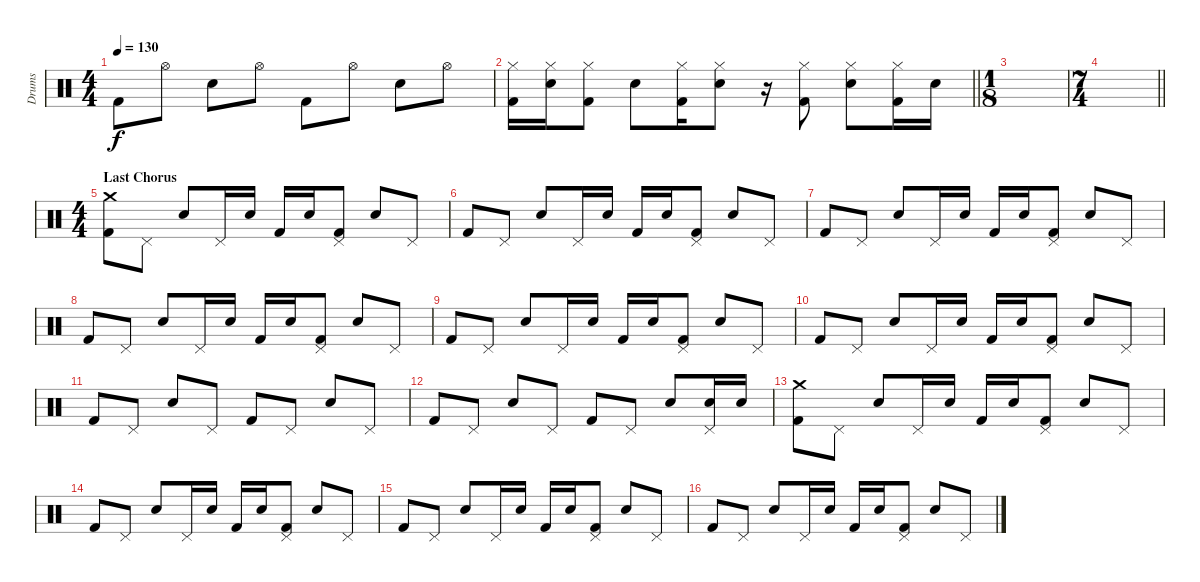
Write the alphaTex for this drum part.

\track ("Drums" "Drums") {instrument percussion}
\staff {score}
\articulation defaults
\ts (4 4)
\tempo 130
\clef neutral
\ks c "Kick (hit) 2".8{dy f} "Hi-Hat (open)".8 "Electric Snare (hit)".8 "Hi-Hat (open)".8 "Kick (hit) 2".8 "Hi-Hat (open)".8 "Electric Snare (hit)".8 "Hi-Hat (open)".8
|
\barLineRight lightlight
("Kick (hit) 2" "Hi-Hat (closed)").16 ("Electric Snare (hit)" "Hi-Hat (closed)").16 ("Kick (hit) 2" "Hi-Hat (closed)").8 "Electric Snare (hit)".8 ("Kick (hit) 2" "Hi-Hat (closed)").16 ("Electric Snare (hit)" "Hi-Hat (closed)").8 r.16 ("Kick (hit) 2" "Hi-Hat (closed)").8 ("Electric Snare (hit)" "Hi-Hat (closed)").8 ("Kick (hit) 2" "Hi-Hat (closed)").16 "Electric Snare (hit)".16 |
\ts (1 8)
|
\ts (7 4)
\barLineRight lightlight
|
\ts (4 4)
\section ("" "Last Chorus")
("Kick (hit) 2" "Crash medium (hit)").8 "Pedal Hi-Hat (hit)".8 "Electric Snare (hit)".8 "Pedal Hi-Hat (hit)".16 "Electric Snare (hit)".16 "Kick (hit) 2".16 "Electric Snare (hit)".16 ("Kick (hit) 2" "Pedal Hi-Hat (hit)").8 "Electric Snare (hit)".8 "Pedal Hi-Hat (hit)".8 |
"Kick (hit) 2".8 "Pedal Hi-Hat (hit)".8 "Electric Snare (hit)".8 "Pedal Hi-Hat (hit)".16 "Electric Snare (hit)".16 "Kick (hit) 2".16 "Electric Snare (hit)".16 ("Kick (hit) 2" "Pedal Hi-Hat (hit)").8 "Electric Snare (hit)".8 "Pedal Hi-Hat (hit)".8 |
"Kick (hit) 2".8 "Pedal Hi-Hat (hit)".8 "Electric Snare (hit)".8 "Pedal Hi-Hat (hit)".16 "Electric Snare (hit)".16 "Kick (hit) 2".16 "Electric Snare (hit)".16 ("Kick (hit) 2" "Pedal Hi-Hat (hit)").8 "Electric Snare (hit)".8 "Pedal Hi-Hat (hit)".8 |
"Kick (hit) 2".8 "Pedal Hi-Hat (hit)".8 "Electric Snare (hit)".8 "Pedal Hi-Hat (hit)".16 "Electric Snare (hit)".16 "Kick (hit) 2".16 "Electric Snare (hit)".16 ("Kick (hit) 2" "Pedal Hi-Hat (hit)").8 "Electric Snare (hit)".8 "Pedal Hi-Hat (hit)".8 |
"Kick (hit) 2".8 "Pedal Hi-Hat (hit)".8 "Electric Snare (hit)".8 "Pedal Hi-Hat (hit)".16 "Electric Snare (hit)".16 "Kick (hit) 2".16 "Electric Snare (hit)".16 ("Kick (hit) 2" "Pedal Hi-Hat (hit)").8 "Electric Snare (hit)".8 "Pedal Hi-Hat (hit)".8 |
"Kick (hit) 2".8 "Pedal Hi-Hat (hit)".8 "Electric Snare (hit)".8 "Pedal Hi-Hat (hit)".16 "Electric Snare (hit)".16 "Kick (hit) 2".16 "Electric Snare (hit)".16 ("Kick (hit) 2" "Pedal Hi-Hat (hit)").8 "Electric Snare (hit)".8 "Pedal Hi-Hat (hit)".8 |
"Kick (hit) 2".8 "Pedal Hi-Hat (hit)".8 "Electric Snare (hit)".8 "Pedal Hi-Hat (hit)".8 "Kick (hit) 2".8 "Pedal Hi-Hat (hit)".8 "Electric Snare (hit)".8 "Pedal Hi-Hat (hit)".8 |
"Kick (hit) 2".8 "Pedal Hi-Hat (hit)".8 "Electric Snare (hit)".8 "Pedal Hi-Hat (hit)".8 "Kick (hit) 2".8 "Pedal Hi-Hat (hit)".8 "Electric Snare (hit)".8 ("Electric Snare (hit)" "Pedal Hi-Hat (hit)").16 "Electric Snare (hit)".16 |
("Kick (hit) 2" "Crash medium (hit)").8 "Pedal Hi-Hat (hit)".8 "Electric Snare (hit)".8 "Pedal Hi-Hat (hit)".16 "Electric Snare (hit)".16 "Kick (hit) 2".16 "Electric Snare (hit)".16 ("Kick (hit) 2" "Pedal Hi-Hat (hit)").8 "Electric Snare (hit)".8 "Pedal Hi-Hat (hit)".8 |
"Kick (hit) 2".8 "Pedal Hi-Hat (hit)".8 "Electric Snare (hit)".8 "Pedal Hi-Hat (hit)".16 "Electric Snare (hit)".16 "Kick (hit) 2".16 "Electric Snare (hit)".16 ("Kick (hit) 2" "Pedal Hi-Hat (hit)").8 "Electric Snare (hit)".8 "Pedal Hi-Hat (hit)".8 |
"Kick (hit) 2".8 "Pedal Hi-Hat (hit)".8 "Electric Snare (hit)".8 "Pedal Hi-Hat (hit)".16 "Electric Snare (hit)".16 "Kick (hit) 2".16 "Electric Snare (hit)".16 ("Kick (hit) 2" "Pedal Hi-Hat (hit)").8 "Electric Snare (hit)".8 "Pedal Hi-Hat (hit)".8 |
"Kick (hit) 2".8 "Pedal Hi-Hat (hit)".8 "Electric Snare (hit)".8 "Pedal Hi-Hat (hit)".16 "Electric Snare (hit)".16 "Kick (hit) 2".16 "Electric Snare (hit)".16 ("Kick (hit) 2" "Pedal Hi-Hat (hit)").8 "Electric Snare (hit)".8 "Pedal Hi-Hat (hit)".8
